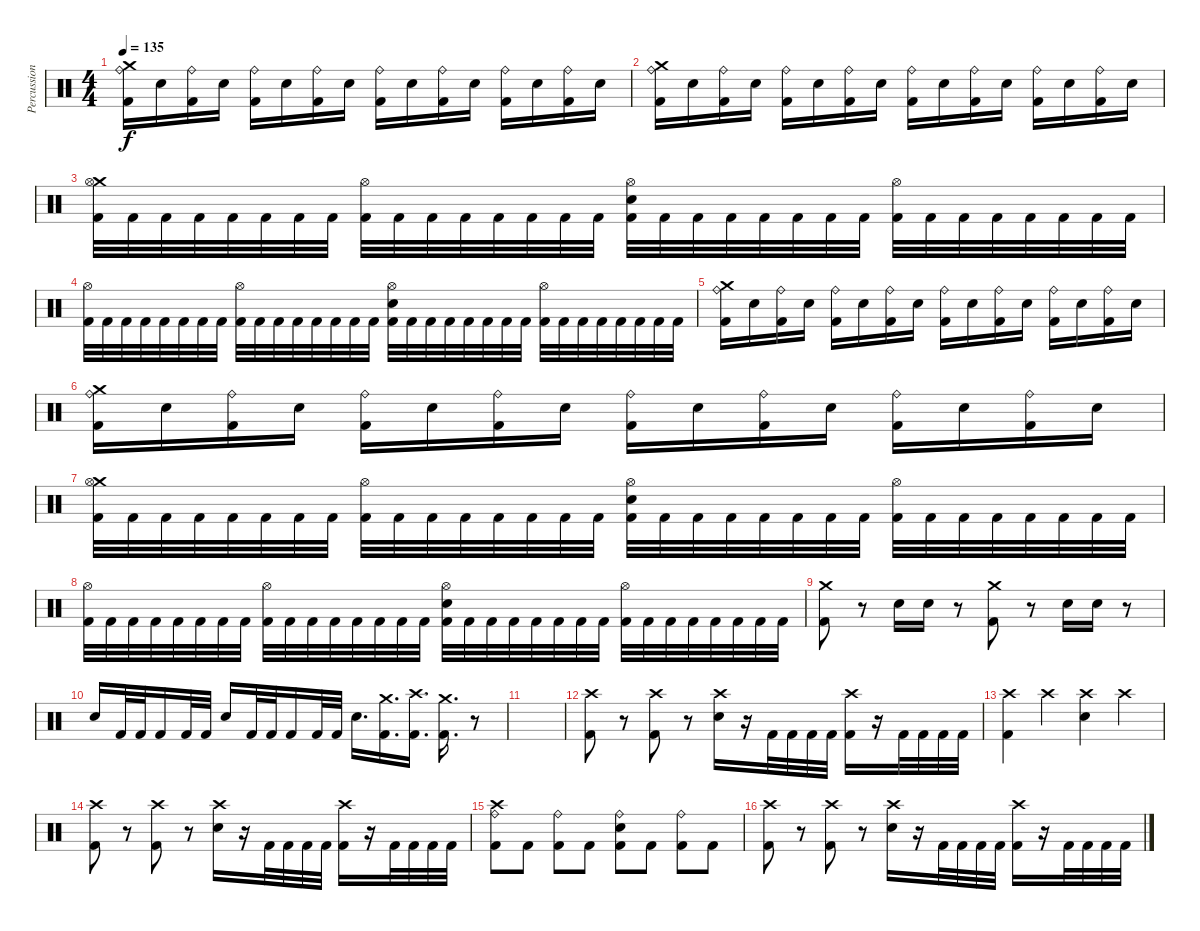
\track ("Percussion" "Percussion") {instrument percussion}
\staff {score}
\articulation defaults
\ts (4 4)
\tempo 135
\clef neutral
\ks c
("Crash medium (hit)" "Ride (bell)" "Kick (hit) 2").16{dy f} "Electric Snare (hit)".16 ("Ride (bell)" "Kick (hit) 2").16 "Electric Snare (hit)".16 ("Ride (bell)" "Kick (hit) 2").16 "Electric Snare (hit)".16 ("Ride (bell)" "Kick (hit) 2").16 "Electric Snare (hit)".16 ("Ride (bell)" "Kick (hit) 2").16 "Electric Snare (hit)".16 ("Ride (bell)" "Kick (hit) 2").16 "Electric Snare (hit)".16 ("Ride (bell)" "Kick (hit) 2").16 "Electric Snare (hit)".16 ("Ride (bell)" "Kick (hit) 2").16 "Electric Snare (hit)".16 |
("Crash medium (hit)" "Ride (bell)" "Kick (hit) 2").16 "Electric Snare (hit)".16 ("Ride (bell)" "Kick (hit) 2").16 "Electric Snare (hit)".16 ("Ride (bell)" "Kick (hit) 2").16 "Electric Snare (hit)".16 ("Ride (bell)" "Kick (hit) 2").16 "Electric Snare (hit)".16 ("Ride (bell)" "Kick (hit) 2").16 "Electric Snare (hit)".16 ("Ride (bell)" "Kick (hit) 2").16 "Electric Snare (hit)".16 ("Ride (bell)" "Kick (hit) 2").16 "Electric Snare (hit)".16 ("Ride (bell)" "Kick (hit) 2").16 "Electric Snare (hit)".16 |
("Crash medium (hit)" "Hi-Hat (open)" "Kick (hit) 2").32 "Kick (hit) 2".32 "Kick (hit) 2".32 "Kick (hit) 2".32 "Kick (hit) 2".32 "Kick (hit) 2".32 "Kick (hit) 2".32 "Kick (hit) 2".32 ("Hi-Hat (open)" "Kick (hit) 2").32 "Kick (hit) 2".32 "Kick (hit) 2".32 "Kick (hit) 2".32 "Kick (hit) 2".32 "Kick (hit) 2".32 "Kick (hit) 2".32 "Kick (hit) 2".32 ("Hi-Hat (open)" "Electric Snare (hit)" "Kick (hit) 2").32 "Kick (hit) 2".32 "Kick (hit) 2".32 "Kick (hit) 2".32 "Kick (hit) 2".32 "Kick (hit) 2".32 "Kick (hit) 2".32 "Kick (hit) 2".32 ("Hi-Hat (open)" "Kick (hit) 2").32 "Kick (hit) 2".32 "Kick (hit) 2".32 "Kick (hit) 2".32 "Kick (hit) 2".32 "Kick (hit) 2".32 "Kick (hit) 2".32 "Kick (hit) 2".32 |
("Hi-Hat (open)" "Kick (hit) 2").32 "Kick (hit) 2".32 "Kick (hit) 2".32 "Kick (hit) 2".32 "Kick (hit) 2".32 "Kick (hit) 2".32 "Kick (hit) 2".32 "Kick (hit) 2".32 ("Hi-Hat (open)" "Kick (hit) 2").32 "Kick (hit) 2".32 "Kick (hit) 2".32 "Kick (hit) 2".32 "Kick (hit) 2".32 "Kick (hit) 2".32 "Kick (hit) 2".32 "Kick (hit) 2".32 ("Hi-Hat (open)" "Electric Snare (hit)" "Kick (hit) 2").32 "Kick (hit) 2".32 "Kick (hit) 2".32 "Kick (hit) 2".32 "Kick (hit) 2".32 "Kick (hit) 2".32 "Kick (hit) 2".32 "Kick (hit) 2".32 ("Hi-Hat (open)" "Kick (hit) 2").32 "Kick (hit) 2".32 "Kick (hit) 2".32 "Kick (hit) 2".32 "Kick (hit) 2".32 "Kick (hit) 2".32 "Kick (hit) 2".32 "Kick (hit) 2".32 |
("Crash medium (hit)" "Ride (bell)" "Kick (hit) 2").16 "Electric Snare (hit)".16 ("Ride (bell)" "Kick (hit) 2").16 "Electric Snare (hit)".16 ("Ride (bell)" "Kick (hit) 2").16 "Electric Snare (hit)".16 ("Ride (bell)" "Kick (hit) 2").16 "Electric Snare (hit)".16 ("Ride (bell)" "Kick (hit) 2").16 "Electric Snare (hit)".16 ("Ride (bell)" "Kick (hit) 2").16 "Electric Snare (hit)".16 ("Ride (bell)" "Kick (hit) 2").16 "Electric Snare (hit)".16 ("Ride (bell)" "Kick (hit) 2").16 "Electric Snare (hit)".16 |
("Crash medium (hit)" "Ride (bell)" "Kick (hit) 2").16 "Electric Snare (hit)".16 ("Ride (bell)" "Kick (hit) 2").16 "Electric Snare (hit)".16 ("Ride (bell)" "Kick (hit) 2").16 "Electric Snare (hit)".16 ("Ride (bell)" "Kick (hit) 2").16 "Electric Snare (hit)".16 ("Ride (bell)" "Kick (hit) 2").16 "Electric Snare (hit)".16 ("Ride (bell)" "Kick (hit) 2").16 "Electric Snare (hit)".16 ("Ride (bell)" "Kick (hit) 2").16 "Electric Snare (hit)".16 ("Ride (bell)" "Kick (hit) 2").16 "Electric Snare (hit)".16 |
("Crash medium (hit)" "Hi-Hat (open)" "Kick (hit) 2").32 "Kick (hit) 2".32 "Kick (hit) 2".32 "Kick (hit) 2".32 "Kick (hit) 2".32 "Kick (hit) 2".32 "Kick (hit) 2".32 "Kick (hit) 2".32 ("Hi-Hat (open)" "Kick (hit) 2").32 "Kick (hit) 2".32 "Kick (hit) 2".32 "Kick (hit) 2".32 "Kick (hit) 2".32 "Kick (hit) 2".32 "Kick (hit) 2".32 "Kick (hit) 2".32 ("Hi-Hat (open)" "Electric Snare (hit)" "Kick (hit) 2").32 "Kick (hit) 2".32 "Kick (hit) 2".32 "Kick (hit) 2".32 "Kick (hit) 2".32 "Kick (hit) 2".32 "Kick (hit) 2".32 "Kick (hit) 2".32 ("Hi-Hat (open)" "Kick (hit) 2").32 "Kick (hit) 2".32 "Kick (hit) 2".32 "Kick (hit) 2".32 "Kick (hit) 2".32 "Kick (hit) 2".32 "Kick (hit) 2".32 "Kick (hit) 2".32 |
("Hi-Hat (open)" "Kick (hit) 2").32 "Kick (hit) 2".32 "Kick (hit) 2".32 "Kick (hit) 2".32 "Kick (hit) 2".32 "Kick (hit) 2".32 "Kick (hit) 2".32 "Kick (hit) 2".32 ("Hi-Hat (open)" "Kick (hit) 2").32 "Kick (hit) 2".32 "Kick (hit) 2".32 "Kick (hit) 2".32 "Kick (hit) 2".32 "Kick (hit) 2".32 "Kick (hit) 2".32 "Kick (hit) 2".32 ("Hi-Hat (open)" "Electric Snare (hit)" "Kick (hit) 2").32 "Kick (hit) 2".32 "Kick (hit) 2".32 "Kick (hit) 2".32 "Kick (hit) 2".32 "Kick (hit) 2".32 "Kick (hit) 2".32 "Kick (hit) 2".32 ("Hi-Hat (open)" "Kick (hit) 2").32 "Kick (hit) 2".32 "Kick (hit) 2".32 "Kick (hit) 2".32 "Kick (hit) 2".32 "Kick (hit) 2".32 "Kick (hit) 2".32 "Kick (hit) 2".32 |
("Crash medium (hit)" "Kick (hit) 2").8 r.8 "Electric Snare (hit)".16 "Electric Snare (hit)".16 r.8 ("Crash medium (hit)" "Kick (hit) 2").8 r.8 "Electric Snare (hit)".16 "Electric Snare (hit)".16 r.8 |
"Electric Snare (hit)".16 "Kick (hit) 2".32 "Kick (hit) 2".32 "Kick (hit) 2".16 "Kick (hit) 2".32 "Kick (hit) 2".32 "Electric Snare (hit)".16 "Kick (hit) 2".32 "Kick (hit) 2".32 "Kick (hit) 2".16 "Kick (hit) 2".32 "Kick (hit) 2".32 "Electric Snare (hit)".16{d} ("Crash medium (hit)" "Kick (hit) 2").16{d} ("Crash high (hit)" "Kick (hit) 2").16{d} ("Crash medium (hit)" "Kick (hit) 2").16{d} r.8 |
|
("Crash high (hit)" "Kick (hit) 2").8 r.8 ("Crash high (hit)" "Kick (hit) 2").8 r.8 ("Crash high (hit)" "Electric Snare (hit)").16 r.16 "Kick (hit) 2".32 "Kick (hit) 2".32 "Kick (hit) 2".32 "Kick (hit) 2".32 ("Crash high (hit)" "Kick (hit) 2").16 r.16 "Kick (hit) 2".32 "Kick (hit) 2".32 "Kick (hit) 2".32 "Kick (hit) 2".32 |
("Crash high (hit)" "Kick (hit) 2").4 "Crash high (hit)".4 ("Crash high (hit)" "Electric Snare (hit)").4 "Crash high (hit)".4 |
("Crash high (hit)" "Kick (hit) 2").8 r.8 ("Crash high (hit)" "Kick (hit) 2").8 r.8 ("Crash high (hit)" "Electric Snare (hit)").16 r.16 "Kick (hit) 2".32 "Kick (hit) 2".32 "Kick (hit) 2".32 "Kick (hit) 2".32 ("Crash high (hit)" "Kick (hit) 2").16 r.16 "Kick (hit) 2".32 "Kick (hit) 2".32 "Kick (hit) 2".32 "Kick (hit) 2".32 |
("Crash high (hit)" "Ride (bell)" "Kick (hit) 2").8 "Kick (hit) 2".8 ("Ride (bell)" "Kick (hit) 2").8 "Kick (hit) 2".8 ("Ride (bell)" "Electric Snare (hit)" "Kick (hit) 2").8 "Kick (hit) 2".8 ("Ride (bell)" "Kick (hit) 2").8 "Kick (hit) 2".8 |
("Crash high (hit)" "Kick (hit) 2").8 r.8 ("Crash high (hit)" "Kick (hit) 2").8 r.8 ("Crash high (hit)" "Electric Snare (hit)").16 r.16 "Kick (hit) 2".32 "Kick (hit) 2".32 "Kick (hit) 2".32 "Kick (hit) 2".32 ("Crash high (hit)" "Kick (hit) 2").16 r.16 "Kick (hit) 2".32 "Kick (hit) 2".32 "Kick (hit) 2".32 "Kick (hit) 2".32
